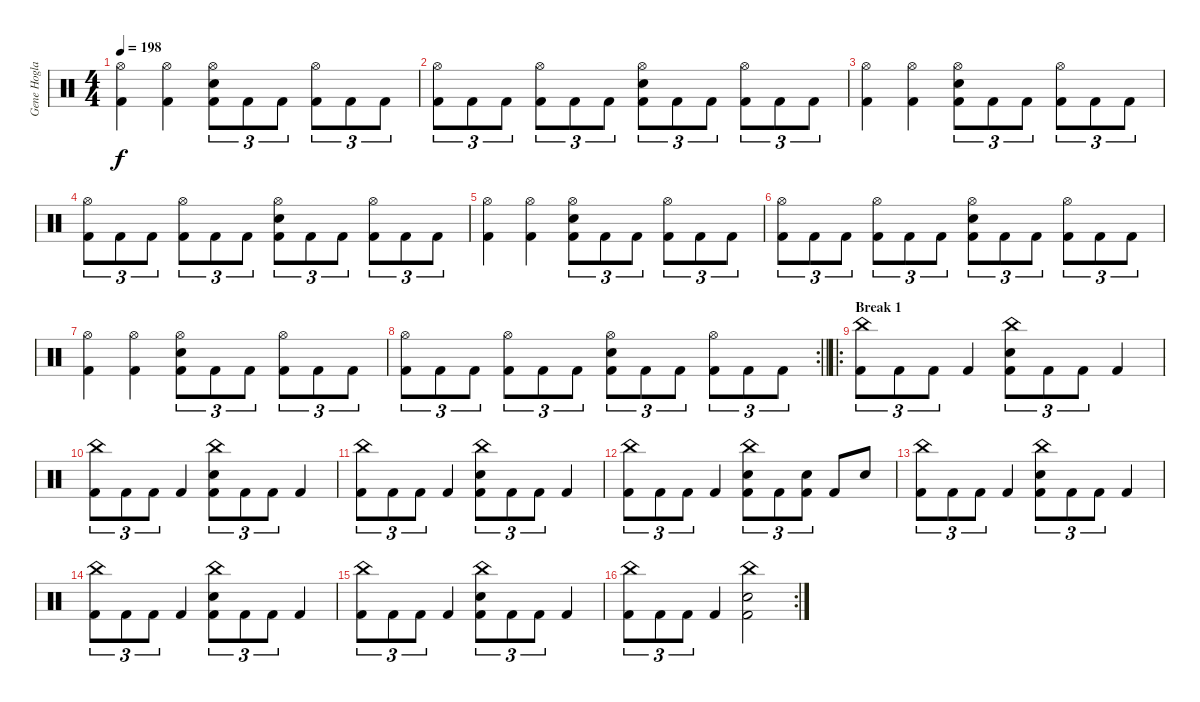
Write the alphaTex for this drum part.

\track ("Gene Hoglan" "Gene Hogla") {instrument percussion}
\staff {score}
\articulation defaults
\ts (4 4)
\tempo 198
\clef neutral
\ks c
("Hi-Hat (open)" "Kick (hit) 2").4{dy f} ("Hi-Hat (open)" "Kick (hit) 2").4 ("Hi-Hat (open)" "Snare (hit) 2" "Kick (hit) 2").8{tu (3 2)} "Kick (hit) 2".8{tu (3 2)} "Kick (hit) 2".8{tu (3 2)} ("Hi-Hat (open)" "Kick (hit) 2").8{tu (3 2)} "Kick (hit) 2".8{tu (3 2)} "Kick (hit) 2".8{tu (3 2)} |
("Hi-Hat (open)" "Kick (hit) 2").8{tu (3 2)} "Kick (hit) 2".8{tu (3 2)} "Kick (hit) 2".8{tu (3 2)} ("Hi-Hat (open)" "Kick (hit) 2").8{tu (3 2)} "Kick (hit) 2".8{tu (3 2)} "Kick (hit) 2".8{tu (3 2)} ("Hi-Hat (open)" "Snare (hit) 2" "Kick (hit) 2").8{tu (3 2)} "Kick (hit) 2".8{tu (3 2)} "Kick (hit) 2".8{tu (3 2)} ("Hi-Hat (open)" "Kick (hit) 2").8{tu (3 2)} "Kick (hit) 2".8{tu (3 2)} "Kick (hit) 2".8{tu (3 2)} |
("Hi-Hat (open)" "Kick (hit) 2").4 ("Hi-Hat (open)" "Kick (hit) 2").4 ("Hi-Hat (open)" "Snare (hit) 2" "Kick (hit) 2").8{tu (3 2)} "Kick (hit) 2".8{tu (3 2)} "Kick (hit) 2".8{tu (3 2)} ("Hi-Hat (open)" "Kick (hit) 2").8{tu (3 2)} "Kick (hit) 2".8{tu (3 2)} "Kick (hit) 2".8{tu (3 2)} |
("Hi-Hat (open)" "Kick (hit) 2").8{tu (3 2)} "Kick (hit) 2".8{tu (3 2)} "Kick (hit) 2".8{tu (3 2)} ("Hi-Hat (open)" "Kick (hit) 2").8{tu (3 2)} "Kick (hit) 2".8{tu (3 2)} "Kick (hit) 2".8{tu (3 2)} ("Hi-Hat (open)" "Snare (hit) 2" "Kick (hit) 2").8{tu (3 2)} "Kick (hit) 2".8{tu (3 2)} "Kick (hit) 2".8{tu (3 2)} ("Hi-Hat (open)" "Kick (hit) 2").8{tu (3 2)} "Kick (hit) 2".8{tu (3 2)} "Kick (hit) 2".8{tu (3 2)} |
("Hi-Hat (open)" "Kick (hit) 2").4 ("Hi-Hat (open)" "Kick (hit) 2").4 ("Hi-Hat (open)" "Snare (hit) 2" "Kick (hit) 2").8{tu (3 2)} "Kick (hit) 2".8{tu (3 2)} "Kick (hit) 2".8{tu (3 2)} ("Hi-Hat (open)" "Kick (hit) 2").8{tu (3 2)} "Kick (hit) 2".8{tu (3 2)} "Kick (hit) 2".8{tu (3 2)} |
("Hi-Hat (open)" "Kick (hit) 2").8{tu (3 2)} "Kick (hit) 2".8{tu (3 2)} "Kick (hit) 2".8{tu (3 2)} ("Hi-Hat (open)" "Kick (hit) 2").8{tu (3 2)} "Kick (hit) 2".8{tu (3 2)} "Kick (hit) 2".8{tu (3 2)} ("Hi-Hat (open)" "Snare (hit) 2" "Kick (hit) 2").8{tu (3 2)} "Kick (hit) 2".8{tu (3 2)} "Kick (hit) 2".8{tu (3 2)} ("Hi-Hat (open)" "Kick (hit) 2").8{tu (3 2)} "Kick (hit) 2".8{tu (3 2)} "Kick (hit) 2".8{tu (3 2)} |
("Hi-Hat (open)" "Kick (hit) 2").4 ("Hi-Hat (open)" "Kick (hit) 2").4 ("Hi-Hat (open)" "Snare (hit) 2" "Kick (hit) 2").8{tu (3 2)} "Kick (hit) 2".8{tu (3 2)} "Kick (hit) 2".8{tu (3 2)} ("Hi-Hat (open)" "Kick (hit) 2").8{tu (3 2)} "Kick (hit) 2".8{tu (3 2)} "Kick (hit) 2".8{tu (3 2)} |
\rc 2
\barLineRight lightlight
("Hi-Hat (open)" "Kick (hit) 2").8{tu (3 2)} "Kick (hit) 2".8{tu (3 2)} "Kick (hit) 2".8{tu (3 2)} ("Hi-Hat (open)" "Kick (hit) 2").8{tu (3 2)} "Kick (hit) 2".8{tu (3 2)} "Kick (hit) 2".8{tu (3 2)} ("Hi-Hat (open)" "Snare (hit) 2" "Kick (hit) 2").8{tu (3 2)} "Kick (hit) 2".8{tu (3 2)} "Kick (hit) 2".8{tu (3 2)} ("Hi-Hat (open)" "Kick (hit) 2").8{tu (3 2)} "Kick (hit) 2".8{tu (3 2)} "Kick (hit) 2".8{tu (3 2)} |
\ro
\section ("" "Break 1")
("China (hit)" "Kick (hit) 2").8{tu (3 2)} "Kick (hit) 2".8{tu (3 2)} "Kick (hit) 2".8{tu (3 2)} "Kick (hit) 2".4 ("China (hit)" "Snare (hit) 2" "Kick (hit) 2").8{tu (3 2)} "Kick (hit) 2".8{tu (3 2)} "Kick (hit) 2".8{tu (3 2)} "Kick (hit) 2".4 |
("China (hit)" "Kick (hit) 2").8{tu (3 2)} "Kick (hit) 2".8{tu (3 2)} "Kick (hit) 2".8{tu (3 2)} "Kick (hit) 2".4 ("China (hit)" "Snare (hit) 2" "Kick (hit) 2").8{tu (3 2)} "Kick (hit) 2".8{tu (3 2)} "Kick (hit) 2".8{tu (3 2)} "Kick (hit) 2".4 |
("China (hit)" "Kick (hit) 2").8{tu (3 2)} "Kick (hit) 2".8{tu (3 2)} "Kick (hit) 2".8{tu (3 2)} "Kick (hit) 2".4 ("China (hit)" "Snare (hit) 2" "Kick (hit) 2").8{tu (3 2)} "Kick (hit) 2".8{tu (3 2)} "Kick (hit) 2".8{tu (3 2)} "Kick (hit) 2".4 |
("China (hit)" "Kick (hit) 2").8{tu (3 2)} "Kick (hit) 2".8{tu (3 2)} "Kick (hit) 2".8{tu (3 2)} "Kick (hit) 2".4 ("China (hit)" "Snare (hit) 2" "Kick (hit) 2").8{tu (3 2)} "Kick (hit) 2".8{tu (3 2)} ("Snare (hit) 2" "Kick (hit) 2").8{tu (3 2)} "Kick (hit) 2".8 "Snare (hit) 2".8 |
("China (hit)" "Kick (hit) 2").8{tu (3 2)} "Kick (hit) 2".8{tu (3 2)} "Kick (hit) 2".8{tu (3 2)} "Kick (hit) 2".4 ("China (hit)" "Snare (hit) 2" "Kick (hit) 2").8{tu (3 2)} "Kick (hit) 2".8{tu (3 2)} "Kick (hit) 2".8{tu (3 2)} "Kick (hit) 2".4 |
("China (hit)" "Kick (hit) 2").8{tu (3 2)} "Kick (hit) 2".8{tu (3 2)} "Kick (hit) 2".8{tu (3 2)} "Kick (hit) 2".4 ("China (hit)" "Snare (hit) 2" "Kick (hit) 2").8{tu (3 2)} "Kick (hit) 2".8{tu (3 2)} "Kick (hit) 2".8{tu (3 2)} "Kick (hit) 2".4 |
("China (hit)" "Kick (hit) 2").8{tu (3 2)} "Kick (hit) 2".8{tu (3 2)} "Kick (hit) 2".8{tu (3 2)} "Kick (hit) 2".4 ("China (hit)" "Snare (hit) 2" "Kick (hit) 2").8{tu (3 2)} "Kick (hit) 2".8{tu (3 2)} "Kick (hit) 2".8{tu (3 2)} "Kick (hit) 2".4 |
\rc 2
("China (hit)" "Kick (hit) 2").8{tu (3 2)} "Kick (hit) 2".8{tu (3 2)} "Kick (hit) 2".8{tu (3 2)} "Kick (hit) 2".4 ("China (hit)" "Snare (hit) 2" "Kick (hit) 2").2
